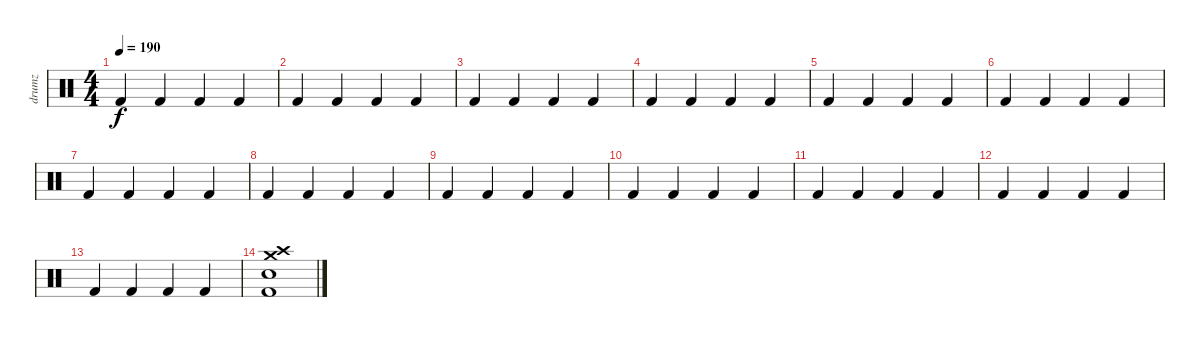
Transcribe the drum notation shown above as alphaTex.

\track ("drumz" "drumz") {instrument percussion}
\staff {score}
\articulation defaults
\ts (4 4)
\tempo 190
\clef neutral
\ks c "Kick (hit) 2".4{dy f} "Kick (hit) 2".4 "Kick (hit) 2".4 "Kick (hit) 2".4
|
"Kick (hit) 2".4 "Kick (hit) 2".4 "Kick (hit) 2".4 "Kick (hit) 2".4 |
"Kick (hit) 2".4 "Kick (hit) 2".4 "Kick (hit) 2".4 "Kick (hit) 2".4 |
"Kick (hit) 2".4 "Kick (hit) 2".4 "Kick (hit) 2".4 "Kick (hit) 2".4 |
"Kick (hit) 2".4 "Kick (hit) 2".4 "Kick (hit) 2".4 "Kick (hit) 2".4 |
"Kick (hit) 2".4 "Kick (hit) 2".4 "Kick (hit) 2".4 "Kick (hit) 2".4 |
"Kick (hit) 2".4 "Kick (hit) 2".4 "Kick (hit) 2".4 "Kick (hit) 2".4 |
"Kick (hit) 2".4 "Kick (hit) 2".4 "Kick (hit) 2".4 "Kick (hit) 2".4 |
"Kick (hit) 2".4 "Kick (hit) 2".4 "Kick (hit) 2".4 "Kick (hit) 2".4 |
"Kick (hit) 2".4 "Kick (hit) 2".4 "Kick (hit) 2".4 "Kick (hit) 2".4 |
"Kick (hit) 2".4 "Kick (hit) 2".4 "Kick (hit) 2".4 "Kick (hit) 2".4 |
"Kick (hit) 2".4 "Kick (hit) 2".4 "Kick (hit) 2".4 "Kick (hit) 2".4 |
"Kick (hit) 2".4 "Kick (hit) 2".4 "Kick (hit) 2".4 "Kick (hit) 2".4 |
("Crash medium (hit)" "Crash high (hit)" "Electric Snare (hit)" "Kick (hit) 2").1
